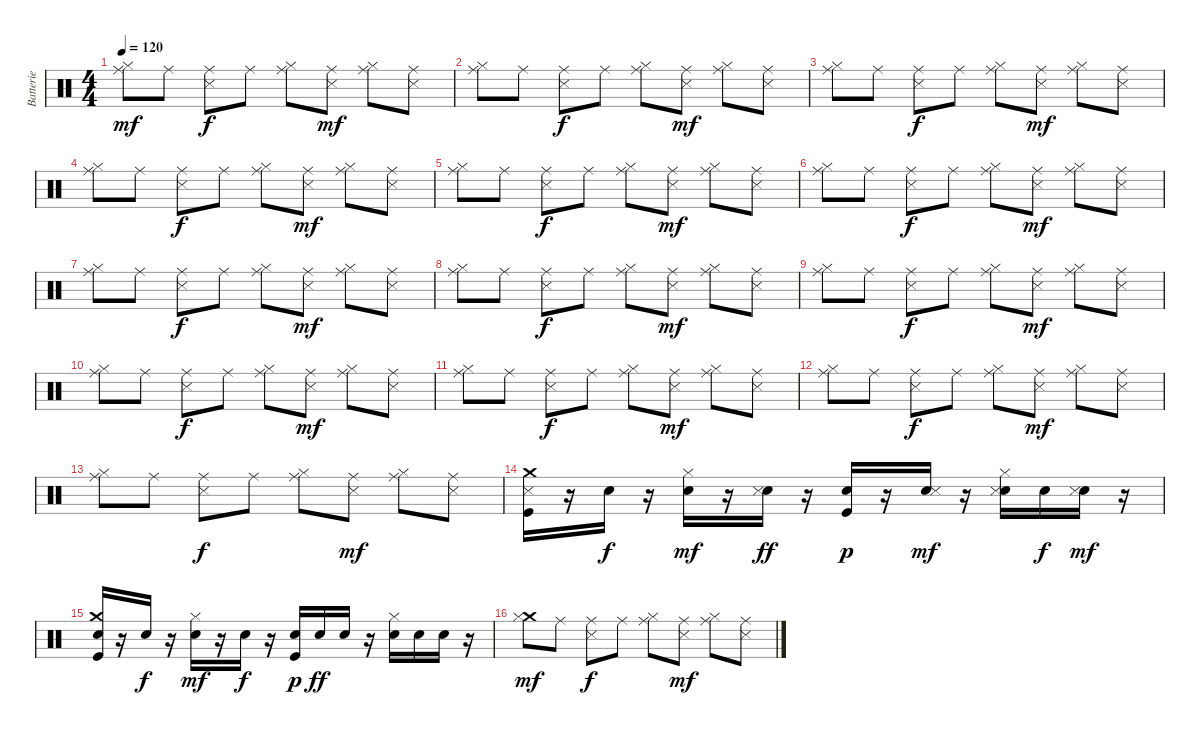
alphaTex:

\track ("Batterie" "Batterie") {instrument percussion}
\staff {score}
\articulation defaults
\ts (4 4)
\tempo 120
\clef neutral
\ks c
("Ride (middle)" "Hi-Hat (closed)").8{dy mf} "Ride (middle)".8 ("Ride (middle)" "Snare (side stick) 3").8{dy f} "Ride (middle)".8 ("Ride (middle)" "Hi-Hat (closed)").8 ("Ride (middle)" "Snare (side stick) 3").8{dy mf} ("Ride (middle)" "Hi-Hat (closed)").8 ("Ride (middle)" "Snare (side stick) 3").8 |
("Ride (middle)" "Hi-Hat (closed)").8 "Ride (middle)".8 ("Ride (middle)" "Snare (side stick) 3").8{dy f} "Ride (middle)".8 ("Ride (middle)" "Hi-Hat (closed)").8 ("Ride (middle)" "Snare (side stick) 3").8{dy mf} ("Ride (middle)" "Hi-Hat (closed)").8 ("Ride (middle)" "Snare (side stick) 3").8 |
("Ride (middle)" "Hi-Hat (closed)").8 "Ride (middle)".8 ("Ride (middle)" "Snare (side stick) 3").8{dy f} "Ride (middle)".8 ("Ride (middle)" "Hi-Hat (closed)").8 ("Ride (middle)" "Snare (side stick) 3").8{dy mf} ("Ride (middle)" "Hi-Hat (closed)").8 ("Ride (middle)" "Snare (side stick) 3").8 |
("Ride (middle)" "Hi-Hat (closed)").8 "Ride (middle)".8 ("Ride (middle)" "Snare (side stick) 3").8{dy f} "Ride (middle)".8 ("Ride (middle)" "Hi-Hat (closed)").8 ("Ride (middle)" "Snare (side stick) 3").8{dy mf} ("Ride (middle)" "Hi-Hat (closed)").8 ("Ride (middle)" "Snare (side stick) 3").8 |
("Ride (middle)" "Hi-Hat (closed)").8 "Ride (middle)".8 ("Ride (middle)" "Snare (side stick) 3").8{dy f} "Ride (middle)".8 ("Ride (middle)" "Hi-Hat (closed)").8 ("Ride (middle)" "Snare (side stick) 3").8{dy mf} ("Ride (middle)" "Hi-Hat (closed)").8 ("Ride (middle)" "Snare (side stick) 3").8 |
("Ride (middle)" "Hi-Hat (closed)").8 "Ride (middle)".8 ("Ride (middle)" "Snare (side stick) 3").8{dy f} "Ride (middle)".8 ("Ride (middle)" "Hi-Hat (closed)").8 ("Ride (middle)" "Snare (side stick) 3").8{dy mf} ("Ride (middle)" "Hi-Hat (closed)").8 ("Ride (middle)" "Snare (side stick) 3").8 |
("Ride (middle)" "Hi-Hat (closed)").8 "Ride (middle)".8 ("Ride (middle)" "Snare (side stick) 3").8{dy f} "Ride (middle)".8 ("Ride (middle)" "Hi-Hat (closed)").8 ("Ride (middle)" "Snare (side stick) 3").8{dy mf} ("Ride (middle)" "Hi-Hat (closed)").8 ("Ride (middle)" "Snare (side stick) 3").8 |
("Ride (middle)" "Hi-Hat (closed)").8 "Ride (middle)".8 ("Ride (middle)" "Snare (side stick) 3").8{dy f} "Ride (middle)".8 ("Ride (middle)" "Hi-Hat (closed)").8 ("Ride (middle)" "Snare (side stick) 3").8{dy mf} ("Ride (middle)" "Hi-Hat (closed)").8 ("Ride (middle)" "Snare (side stick) 3").8 |
("Ride (middle)" "Hi-Hat (closed)").8 "Ride (middle)".8 ("Ride (middle)" "Snare (side stick) 3").8{dy f} "Ride (middle)".8 ("Ride (middle)" "Hi-Hat (closed)").8 ("Ride (middle)" "Snare (side stick) 3").8{dy mf} ("Ride (middle)" "Hi-Hat (closed)").8 ("Ride (middle)" "Snare (side stick) 3").8 |
("Ride (middle)" "Hi-Hat (closed)").8 "Ride (middle)".8 ("Ride (middle)" "Snare (side stick) 3").8{dy f} "Ride (middle)".8 ("Ride (middle)" "Hi-Hat (closed)").8 ("Ride (middle)" "Snare (side stick) 3").8{dy mf} ("Ride (middle)" "Hi-Hat (closed)").8 ("Ride (middle)" "Snare (side stick) 3").8 |
("Ride (middle)" "Hi-Hat (closed)").8 "Ride (middle)".8 ("Ride (middle)" "Snare (side stick) 3").8{dy f} "Ride (middle)".8 ("Ride (middle)" "Hi-Hat (closed)").8 ("Ride (middle)" "Snare (side stick) 3").8{dy mf} ("Ride (middle)" "Hi-Hat (closed)").8 ("Ride (middle)" "Snare (side stick) 3").8 |
("Ride (middle)" "Hi-Hat (closed)").8 "Ride (middle)".8 ("Ride (middle)" "Snare (side stick) 3").8{dy f} "Ride (middle)".8 ("Ride (middle)" "Hi-Hat (closed)").8 ("Ride (middle)" "Snare (side stick) 3").8{dy mf} ("Ride (middle)" "Hi-Hat (closed)").8 ("Ride (middle)" "Snare (side stick) 3").8 |
("Ride (middle)" "Hi-Hat (closed)").8 "Ride (middle)".8 ("Ride (middle)" "Snare (side stick) 3").8{dy f} "Ride (middle)".8 ("Ride (middle)" "Hi-Hat (closed)").8 ("Ride (middle)" "Snare (side stick) 3").8{dy mf} ("Ride (middle)" "Hi-Hat (closed)").8 ("Ride (middle)" "Snare (side stick) 3").8 |
("Kick (hit)" "Crash medium (hit)" "Snare (side stick) 3").16 r.16 "Snare (hit) 2".16{dy f} r.16 ("Hi-Hat (closed)" "Snare (hit) 2").16{dy mf} r.16 ("Snare (hit) 2" "Snare (side stick) 3").16{dy ff} r.16 ("Kick (hit)" "Snare (hit) 2").16{dy p} r.16 ("Snare (hit) 2" "Snare (side stick) 3").16{dy mf} r.16 ("Hi-Hat (closed)" "Snare (hit) 2" "Snare (side stick) 3").16 "Snare (hit) 2".16{dy f} ("Snare (hit) 2" "Snare (side stick) 3").16{dy mf} r.16 |
("Kick (hit)" "Crash medium (hit)" "Snare (hit) 2").16 r.16 "Snare (hit) 2".16{dy f} r.16 ("Hi-Hat (closed)" "Snare (hit) 2").16{dy mf} r.16 "Snare (hit) 2".16{dy f} r.16 ("Kick (hit)" "Snare (hit) 2").16{dy p} "Snare (hit) 2".16{dy ff} "Snare (hit) 2".16 r.16 ("Hi-Hat (closed)" "Snare (hit) 2").16 "Snare (hit) 2".16 "Snare (hit) 2".16 r.16 |
("Crash medium (hit)" "Hi-Hat (closed)").8{dy mf} "Ride (middle)".8 ("Ride (middle)" "Snare (side stick) 3").8{dy f} "Ride (middle)".8 ("Ride (middle)" "Hi-Hat (closed)").8 ("Ride (middle)" "Snare (side stick) 3").8{dy mf} ("Ride (middle)" "Hi-Hat (closed)").8 ("Ride (middle)" "Snare (side stick) 3").8
